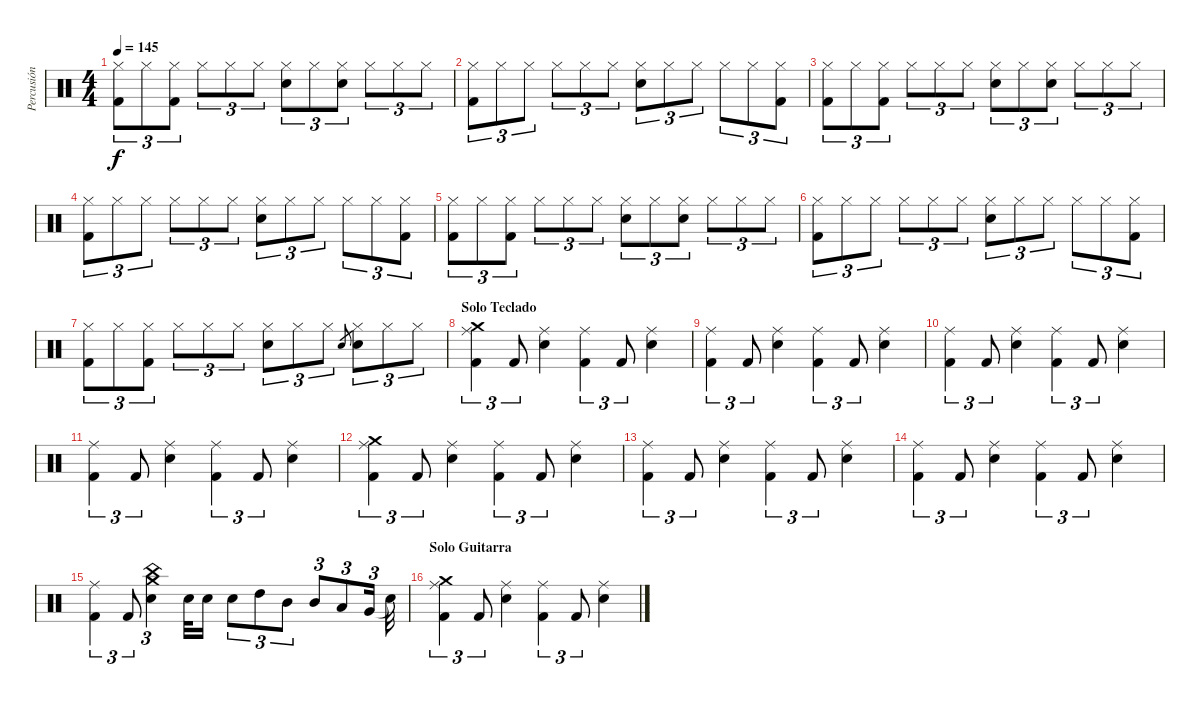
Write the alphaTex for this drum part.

\track ("Percusión" "Percusión") {instrument percussion}
\staff {score}
\articulation defaults
\ts (4 4)
\tempo 145
\clef neutral
\ks c
("Hi-Hat (closed)" "Kick (hit) 2").8{tu (3 2) dy f} "Hi-Hat (closed)".8{tu (3 2)} ("Hi-Hat (closed)" "Kick (hit) 2").8{tu (3 2)} "Hi-Hat (closed)".8{tu (3 2)} "Hi-Hat (closed)".8{tu (3 2)} "Hi-Hat (closed)".8{tu (3 2)} ("Hi-Hat (closed)" "Snare (hit) 2").8{tu (3 2)} "Hi-Hat (closed)".8{tu (3 2)} ("Hi-Hat (closed)" "Snare (hit) 2").8{tu (3 2)} "Hi-Hat (closed)".8{tu (3 2)} "Hi-Hat (closed)".8{tu (3 2)} "Hi-Hat (closed)".8{tu (3 2)} |
("Hi-Hat (closed)" "Kick (hit) 2").8{tu (3 2)} "Hi-Hat (closed)".8{tu (3 2)} "Hi-Hat (closed)".8{tu (3 2)} "Hi-Hat (closed)".8{tu (3 2)} "Hi-Hat (closed)".8{tu (3 2)} "Hi-Hat (closed)".8{tu (3 2)} ("Hi-Hat (closed)" "Snare (hit) 2").8{tu (3 2)} "Hi-Hat (closed)".8{tu (3 2)} "Hi-Hat (closed)".8{tu (3 2)} "Hi-Hat (closed)".8{tu (3 2)} "Hi-Hat (closed)".8{tu (3 2)} ("Hi-Hat (closed)" "Kick (hit) 2").8{tu (3 2)} |
("Hi-Hat (closed)" "Kick (hit) 2").8{tu (3 2)} "Hi-Hat (closed)".8{tu (3 2)} ("Hi-Hat (closed)" "Kick (hit) 2").8{tu (3 2)} "Hi-Hat (closed)".8{tu (3 2)} "Hi-Hat (closed)".8{tu (3 2)} "Hi-Hat (closed)".8{tu (3 2)} ("Hi-Hat (closed)" "Snare (hit) 2").8{tu (3 2)} "Hi-Hat (closed)".8{tu (3 2)} ("Hi-Hat (closed)" "Snare (hit) 2").8{tu (3 2)} "Hi-Hat (closed)".8{tu (3 2)} "Hi-Hat (closed)".8{tu (3 2)} "Hi-Hat (closed)".8{tu (3 2)} |
("Hi-Hat (closed)" "Kick (hit) 2").8{tu (3 2)} "Hi-Hat (closed)".8{tu (3 2)} "Hi-Hat (closed)".8{tu (3 2)} "Hi-Hat (closed)".8{tu (3 2)} "Hi-Hat (closed)".8{tu (3 2)} "Hi-Hat (closed)".8{tu (3 2)} ("Hi-Hat (closed)" "Snare (hit) 2").8{tu (3 2)} "Hi-Hat (closed)".8{tu (3 2)} "Hi-Hat (closed)".8{tu (3 2)} "Hi-Hat (closed)".8{tu (3 2)} "Hi-Hat (closed)".8{tu (3 2)} ("Hi-Hat (closed)" "Kick (hit) 2").8{tu (3 2)} |
("Hi-Hat (closed)" "Kick (hit) 2").8{tu (3 2)} "Hi-Hat (closed)".8{tu (3 2)} ("Hi-Hat (closed)" "Kick (hit) 2").8{tu (3 2)} "Hi-Hat (closed)".8{tu (3 2)} "Hi-Hat (closed)".8{tu (3 2)} "Hi-Hat (closed)".8{tu (3 2)} ("Hi-Hat (closed)" "Snare (hit) 2").8{tu (3 2)} "Hi-Hat (closed)".8{tu (3 2)} ("Hi-Hat (closed)" "Snare (hit) 2").8{tu (3 2)} "Hi-Hat (closed)".8{tu (3 2)} "Hi-Hat (closed)".8{tu (3 2)} "Hi-Hat (closed)".8{tu (3 2)} |
("Hi-Hat (closed)" "Kick (hit) 2").8{tu (3 2)} "Hi-Hat (closed)".8{tu (3 2)} "Hi-Hat (closed)".8{tu (3 2)} "Hi-Hat (closed)".8{tu (3 2)} "Hi-Hat (closed)".8{tu (3 2)} "Hi-Hat (closed)".8{tu (3 2)} ("Hi-Hat (closed)" "Snare (hit) 2").8{tu (3 2)} "Hi-Hat (closed)".8{tu (3 2)} "Hi-Hat (closed)".8{tu (3 2)} "Hi-Hat (closed)".8{tu (3 2)} "Hi-Hat (closed)".8{tu (3 2)} ("Hi-Hat (closed)" "Kick (hit) 2").8{tu (3 2)} |
("Hi-Hat (closed)" "Kick (hit) 2").8{tu (3 2)} "Hi-Hat (closed)".8{tu (3 2)} ("Hi-Hat (closed)" "Kick (hit) 2").8{tu (3 2)} "Hi-Hat (closed)".8{tu (3 2)} "Hi-Hat (closed)".8{tu (3 2)} "Hi-Hat (closed)".8{tu (3 2)} ("Hi-Hat (closed)" "Snare (hit) 2").8{tu (3 2)} "Hi-Hat (closed)".8{tu (3 2)} "Hi-Hat (closed)".8{tu (3 2)} "Snare (hit) 2".8{gr} ("Hi-Hat (closed)" "Snare (hit) 2").8{tu (3 2)} "Hi-Hat (closed)".8{tu (3 2)} "Hi-Hat (closed)".8{tu (3 2)} |
\section ("" "Solo Teclado ")
("Kick (hit) 2" "Ride (middle)" "Crash medium (hit)").4{tu (3 2)} "Kick (hit) 2".8{tu (3 2)} ("Snare (hit) 2" "Ride (middle)").4 ("Kick (hit) 2" "Ride (middle)").4{tu (3 2)} "Kick (hit) 2".8{tu (3 2)} ("Snare (hit) 2" "Ride (middle)").4 |
("Kick (hit) 2" "Ride (middle)").4{tu (3 2)} "Kick (hit) 2".8{tu (3 2)} ("Snare (hit) 2" "Ride (middle)").4 ("Kick (hit) 2" "Ride (middle)").4{tu (3 2)} "Kick (hit) 2".8{tu (3 2)} ("Snare (hit) 2" "Ride (middle)").4 |
("Kick (hit) 2" "Ride (middle)").4{tu (3 2)} "Kick (hit) 2".8{tu (3 2)} ("Snare (hit) 2" "Ride (middle)").4 ("Kick (hit) 2" "Ride (middle)").4{tu (3 2)} "Kick (hit) 2".8{tu (3 2)} ("Snare (hit) 2" "Ride (middle)").4 |
("Kick (hit) 2" "Ride (middle)").4{tu (3 2)} "Kick (hit) 2".8{tu (3 2)} ("Snare (hit) 2" "Ride (middle)").4 ("Kick (hit) 2" "Ride (middle)").4{tu (3 2)} "Kick (hit) 2".8{tu (3 2)} ("Snare (hit) 2" "Ride (middle)").4 |
("Kick (hit) 2" "Ride (middle)" "Crash medium (hit)").4{tu (3 2)} "Kick (hit) 2".8{tu (3 2)} ("Snare (hit) 2" "Ride (middle)").4 ("Kick (hit) 2" "Ride (middle)").4{tu (3 2)} "Kick (hit) 2".8{tu (3 2)} ("Snare (hit) 2" "Ride (middle)").4 |
("Kick (hit) 2" "Ride (middle)").4{tu (3 2)} "Kick (hit) 2".8{tu (3 2)} ("Snare (hit) 2" "Ride (middle)").4 ("Kick (hit) 2" "Ride (middle)").4{tu (3 2)} "Kick (hit) 2".8{tu (3 2)} ("Snare (hit) 2" "Ride (middle)").4 |
("Kick (hit) 2" "Ride (middle)").4{tu (3 2)} "Kick (hit) 2".8{tu (3 2)} ("Snare (hit) 2" "Ride (middle)").4 ("Kick (hit) 2" "Ride (middle)").4{tu (3 2)} "Kick (hit) 2".8{tu (3 2)} ("Snare (hit) 2" "Ride (middle)").4 |
("Kick (hit) 2" "Ride (middle)").4{tu (3 2)} "Kick (hit) 2".8{tu (3 2)} ("Snare (hit) 2" "China (hit)" "Crash medium (hit)").4{tu (3 2)} "Snare (hit) 2".32 "Snare (hit) 2".16 "Snare (hit) 2".8{tu (3 2)} "High Tom (hit)".8{tu (3 2)} "Mid Tom (hit)".8{tu (3 2)} "Mid Tom (hit)".8{tu (3 2)} "Low Tom (hit)".8{tu (3 2)} "Very Low Tom (hit)".16{tu (3 2)} "Snare (hit)"{t}.32 |
\section ("" "Solo Guitarra")
("Kick (hit) 2" "Ride (middle)" "Crash medium (hit)").4{tu (3 2)} "Kick (hit) 2".8{tu (3 2)} ("Snare (hit) 2" "Ride (middle)").4 ("Kick (hit) 2" "Ride (middle)").4{tu (3 2)} "Kick (hit) 2".8{tu (3 2)} ("Snare (hit) 2" "Ride (middle)").4
